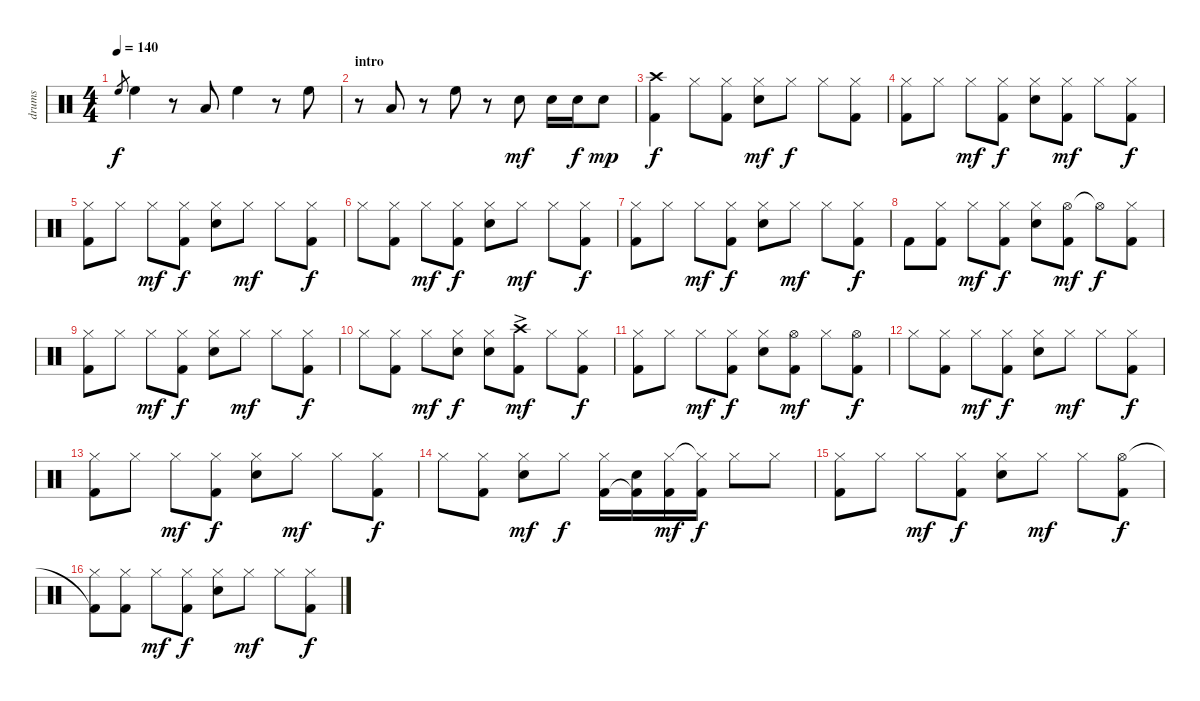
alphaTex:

\track ("drums" "drums") {instrument percussion}
\staff {score}
\articulation defaults
\ts (4 4)
\tempo 140
\clef neutral
\ks c "High Floor Tom (hit)".8{gr dy f} "High Floor Tom (hit)".4
r.8 "Low Tom (hit)".8 "High Floor Tom (hit)".4 r.8 "High Floor Tom (hit)".8 |
\section ("" "intro")
r.8 "Low Tom (hit)".8 r.8 "High Floor Tom (hit)".8 r.8 "Snare (hit) 2".8{dy mf} "Snare (hit) 2".16 "Snare (hit) 2".16{dy f} "Snare (hit) 2".8{dy mp} |
("Crash high (hit)" "Kick (hit) 2").4{dy f} "Hi-Hat (closed)".8 ("Hi-Hat (closed)" "Kick (hit) 2").8 ("Hi-Hat (closed)" "Snare (hit) 2").8{dy mf} "Hi-Hat (closed)".8{dy f} "Hi-Hat (closed)".8 ("Hi-Hat (closed)" "Kick (hit) 2").8 |
("Kick (hit) 2" "Hi-Hat (closed)").8 "Hi-Hat (closed)".8 "Hi-Hat (closed)".8{dy mf} ("Hi-Hat (closed)" "Kick (hit) 2").8{dy f} ("Snare (hit) 2" "Hi-Hat (closed)").8 ("Kick (hit) 2" "Hi-Hat (closed)").8{dy mf} "Hi-Hat (closed)".8 ("Hi-Hat (closed)" "Kick (hit) 2").8{dy f} |
("Kick (hit) 2" "Hi-Hat (closed)").8 "Hi-Hat (closed)".8 "Hi-Hat (closed)".8{dy mf} ("Hi-Hat (closed)" "Kick (hit) 2").8{dy f} ("Snare (hit) 2" "Hi-Hat (closed)").8 "Hi-Hat (closed)".8{dy mf} "Hi-Hat (closed)".8 ("Hi-Hat (closed)" "Kick (hit) 2").8{dy f} |
"Hi-Hat (closed)".8 ("Hi-Hat (closed)" "Kick (hit) 2").8 "Hi-Hat (closed)".8{dy mf} ("Hi-Hat (closed)" "Kick (hit) 2").8{dy f} ("Snare (hit) 2" "Hi-Hat (closed)").8 "Hi-Hat (closed)".8{dy mf} "Hi-Hat (closed)".8 ("Hi-Hat (closed)" "Kick (hit) 2").8{dy f} |
("Kick (hit) 2" "Hi-Hat (closed)").8 "Hi-Hat (closed)".8 "Hi-Hat (closed)".8{dy mf} ("Hi-Hat (closed)" "Kick (hit) 2").8{dy f} ("Snare (hit) 2" "Hi-Hat (closed)").8 "Hi-Hat (closed)".8{dy mf} "Hi-Hat (closed)".8 ("Hi-Hat (closed)" "Kick (hit) 2").8{dy f} |
"Kick (hit) 2".8 ("Hi-Hat (closed)" "Kick (hit) 2").8 "Hi-Hat (closed)".8{dy mf} ("Hi-Hat (closed)" "Kick (hit) 2").8{dy f} ("Snare (hit) 2" "Hi-Hat (closed)").8 ("Hi-Hat (open)" "Kick (hit) 2").8{dy mf} "Hi-Hat (open)"{t}.8{dy f} ("Hi-Hat (closed)" "Kick (hit) 2").8 |
("Kick (hit) 2" "Hi-Hat (closed)").8 "Hi-Hat (closed)".8 "Hi-Hat (closed)".8{dy mf} ("Hi-Hat (closed)" "Kick (hit) 2").8{dy f} ("Snare (hit) 2" "Hi-Hat (closed)").8 "Hi-Hat (closed)".8{dy mf} "Hi-Hat (closed)".8 ("Hi-Hat (closed)" "Kick (hit) 2").8{dy f} |
"Hi-Hat (closed)".8 ("Hi-Hat (closed)" "Kick (hit) 2").8 "Hi-Hat (closed)".8{dy mf} ("Hi-Hat (closed)" "Snare (hit) 2").8{dy f} ("Snare (hit) 2" "Hi-Hat (closed)").8 ("Crash high (hit)"{ac} "Kick (hit) 2").8{dy mf} "Hi-Hat (closed)".8 ("Hi-Hat (closed)" "Kick (hit) 2").8{dy f} |
("Kick (hit) 2" "Hi-Hat (closed)").8 "Hi-Hat (closed)".8 "Hi-Hat (closed)".8{dy mf} ("Hi-Hat (closed)" "Kick (hit) 2").8{dy f} ("Snare (hit) 2" "Hi-Hat (closed)").8 ("Hi-Hat (open)" "Kick (hit) 2").8{dy mf} "Hi-Hat (closed)".8 ("Hi-Hat (open)" "Kick (hit) 2").8{dy f} |
"Hi-Hat (closed)".8 ("Hi-Hat (closed)" "Kick (hit) 2").8 "Hi-Hat (closed)".8{dy mf} ("Hi-Hat (closed)" "Kick (hit) 2").8{dy f} ("Snare (hit) 2" "Hi-Hat (closed)").8 "Hi-Hat (closed)".8{dy mf} "Hi-Hat (closed)".8 ("Hi-Hat (closed)" "Kick (hit) 2").8{dy f} |
("Kick (hit) 2" "Hi-Hat (closed)").8 "Hi-Hat (closed)".8 "Hi-Hat (closed)".8{dy mf} ("Hi-Hat (closed)" "Kick (hit) 2").8{dy f} ("Snare (hit) 2" "Hi-Hat (closed)").8 "Hi-Hat (closed)".8{dy mf} "Hi-Hat (closed)".8 ("Hi-Hat (closed)" "Kick (hit) 2").8{dy f} |
"Hi-Hat (closed)".8 ("Hi-Hat (closed)" "Kick (hit) 2").8 ("Hi-Hat (closed)" "Snare (hit) 2").8{dy mf} "Hi-Hat (closed)".8{dy f} ("Hi-Hat (closed)" "Kick (hit) 2").16 ("Snare (hit) 2" "Kick (hit) 2"{t}).16 ("Hi-Hat (closed)" "Kick (hit) 2").16{dy mf} ("Hi-Hat (closed)"{t} "Kick (hit) 2").16{dy f} "Hi-Hat (closed)".8 "Hi-Hat (closed)".8 |
("Kick (hit) 2" "Hi-Hat (closed)").8 "Hi-Hat (closed)".8 "Hi-Hat (closed)".8{dy mf} ("Hi-Hat (closed)" "Kick (hit) 2").8{dy f} ("Snare (hit) 2" "Hi-Hat (closed)").8 "Hi-Hat (closed)".8{dy mf} "Hi-Hat (closed)".8 ("Hi-Hat (open)" "Kick (hit) 2").8{dy f} |
("Kick (hit) 2"{t} "Hi-Hat (closed)").8 ("Hi-Hat (closed)" "Kick (hit) 2").8 "Hi-Hat (closed)".8{dy mf} ("Hi-Hat (closed)" "Kick (hit) 2").8{dy f} ("Snare (hit) 2" "Hi-Hat (closed)").8 "Hi-Hat (closed)".8{dy mf} "Hi-Hat (closed)".8 ("Hi-Hat (closed)" "Kick (hit) 2").8{dy f}
